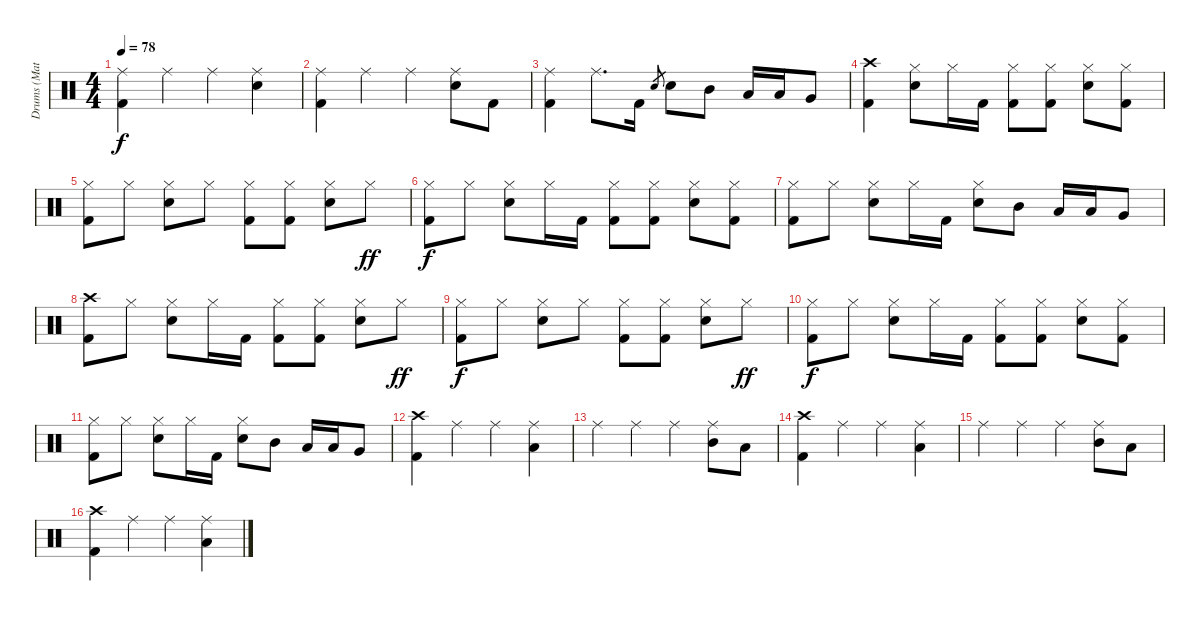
\track ("Drums (Matt)" "Drums (Mat") {instrument percussion}
\staff {score}
\articulation defaults
\ts (4 4)
\tempo 78
\clef neutral
\ks c
("Ride (middle)" "Kick (hit) 2").4{dy f} "Ride (middle)".4 "Ride (middle)".4 ("Ride (middle)" "Snare (hit) 2").4 |
("Ride (middle)" "Kick (hit) 2").4 "Ride (middle)".4 "Ride (middle)".4 ("Ride (middle)" "Snare (hit) 2").8 "Kick (hit) 2".8 |
("Ride (middle)" "Kick (hit) 2").4 "Ride (middle)".8{d} "Kick (hit) 2".16 "Snare (hit) 2".8{gr} "Snare (hit) 2".8 "Mid Tom (hit)".8 "Low Tom (hit)".16 "Low Tom (hit)".16 "Very Low Tom (hit)".8 |
("Crash high (hit)" "Kick (hit) 2").4 ("Hi-Hat (closed)" "Snare (hit) 2").8 "Hi-Hat (closed)".16 "Kick (hit) 2".16 ("Hi-Hat (closed)" "Kick (hit) 2").8 ("Hi-Hat (closed)" "Kick (hit) 2").8 ("Hi-Hat (closed)" "Snare (hit) 2").8 ("Hi-Hat (closed)" "Kick (hit) 2").8 |
("Hi-Hat (closed)" "Kick (hit) 2").8 "Hi-Hat (closed)".8 ("Hi-Hat (closed)" "Snare (hit) 2").8 "Hi-Hat (closed)".8 ("Hi-Hat (closed)" "Kick (hit) 2").8 ("Hi-Hat (closed)" "Kick (hit) 2").8 ("Hi-Hat (closed)" "Snare (hit) 2").8 "Hi-Hat (closed)".8{dy ff} |
("Hi-Hat (closed)" "Kick (hit) 2").8{dy f} "Hi-Hat (closed)".8 ("Hi-Hat (closed)" "Snare (hit) 2").8 "Hi-Hat (closed)".16 "Kick (hit) 2".16 ("Hi-Hat (closed)" "Kick (hit) 2").8 ("Hi-Hat (closed)" "Kick (hit) 2").8 ("Hi-Hat (closed)" "Snare (hit) 2").8 ("Hi-Hat (closed)" "Kick (hit) 2").8 |
("Hi-Hat (closed)" "Kick (hit) 2").8 "Hi-Hat (closed)".8 ("Hi-Hat (closed)" "Snare (hit) 2").8 "Hi-Hat (closed)".16 "Kick (hit) 2".16 ("Hi-Hat (closed)" "Snare (hit) 2").8 "Mid Tom (hit)".8 "Low Tom (hit)".16 "Low Tom (hit)".16 "Very Low Tom (hit)".8 |
("Crash high (hit)" "Kick (hit) 2").8 "Hi-Hat (closed)".8 ("Hi-Hat (closed)" "Snare (hit) 2").8 "Hi-Hat (closed)".16 "Kick (hit) 2".16 ("Hi-Hat (closed)" "Kick (hit) 2").8 ("Hi-Hat (closed)" "Kick (hit) 2").8 ("Hi-Hat (closed)" "Snare (hit) 2").8 "Hi-Hat (closed)".8{dy ff} |
("Hi-Hat (closed)" "Kick (hit) 2").8{dy f} "Hi-Hat (closed)".8 ("Hi-Hat (closed)" "Snare (hit) 2").8 "Hi-Hat (closed)".8 ("Hi-Hat (closed)" "Kick (hit) 2").8 ("Hi-Hat (closed)" "Kick (hit) 2").8 ("Hi-Hat (closed)" "Snare (hit) 2").8 "Hi-Hat (closed)".8{dy ff} |
("Hi-Hat (closed)" "Kick (hit) 2").8{dy f} "Hi-Hat (closed)".8 ("Hi-Hat (closed)" "Snare (hit) 2").8 "Hi-Hat (closed)".16 "Kick (hit) 2".16 ("Hi-Hat (closed)" "Kick (hit) 2").8 ("Hi-Hat (closed)" "Kick (hit) 2").8 ("Hi-Hat (closed)" "Snare (hit) 2").8 ("Hi-Hat (closed)" "Kick (hit) 2").8 |
("Hi-Hat (closed)" "Kick (hit) 2").8 "Hi-Hat (closed)".8 ("Hi-Hat (closed)" "Snare (hit) 2").8 "Hi-Hat (closed)".16 "Kick (hit) 2".16 ("Hi-Hat (closed)" "Snare (hit) 2").8 "Mid Tom (hit)".8 "Low Tom (hit)".16 "Low Tom (hit)".16 "Very Low Tom (hit)".8 |
("Crash high (hit)" "Kick (hit) 2").4 "Ride (middle)".4 "Ride (middle)".4 ("Ride (middle)" "Low Tom (hit)").4 |
"Ride (middle)".4 "Ride (middle)".4 "Ride (middle)".4 ("Ride (middle)" "Mid Tom (hit)").8 "Low Tom (hit)".8 |
("Crash high (hit)" "Kick (hit) 2").4 "Ride (middle)".4 "Ride (middle)".4 ("Ride (middle)" "Low Tom (hit)").4 |
"Ride (middle)".4 "Ride (middle)".4 "Ride (middle)".4 ("Ride (middle)" "Mid Tom (hit)").8 "Low Tom (hit)".8 |
("Crash high (hit)" "Kick (hit) 2").4 "Ride (middle)".4 "Ride (middle)".4 ("Ride (middle)" "Low Tom (hit)").4
